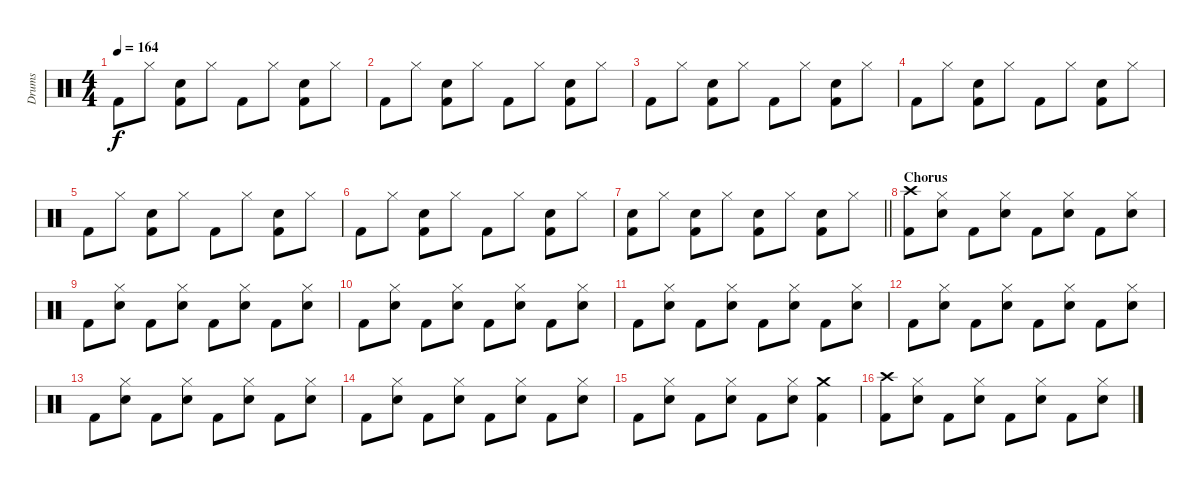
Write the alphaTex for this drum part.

\track ("Drums" "Drums") {instrument percussion}
\staff {score}
\articulation defaults
\ts (4 4)
\tempo 164
\clef neutral
\ks c "Kick (hit) 2".8{dy f} "Hi-Hat (closed)".8
("Electric Snare (hit)" "Kick (hit) 2").8 "Hi-Hat (closed)".8 "Kick (hit) 2".8 "Hi-Hat (closed)".8 ("Electric Snare (hit)" "Kick (hit) 2").8 "Hi-Hat (closed)".8 |
"Kick (hit) 2".8 "Hi-Hat (closed)".8 ("Electric Snare (hit)" "Kick (hit) 2").8 "Hi-Hat (closed)".8 "Kick (hit) 2".8 "Hi-Hat (closed)".8 ("Electric Snare (hit)" "Kick (hit) 2").8 "Hi-Hat (closed)".8 |
"Kick (hit) 2".8 "Hi-Hat (closed)".8 ("Electric Snare (hit)" "Kick (hit) 2").8 "Hi-Hat (closed)".8 "Kick (hit) 2".8 "Hi-Hat (closed)".8 ("Electric Snare (hit)" "Kick (hit) 2").8 "Hi-Hat (closed)".8 |
"Kick (hit) 2".8 "Hi-Hat (closed)".8 ("Electric Snare (hit)" "Kick (hit) 2").8 "Hi-Hat (closed)".8 "Kick (hit) 2".8 "Hi-Hat (closed)".8 ("Electric Snare (hit)" "Kick (hit) 2").8 "Hi-Hat (closed)".8 |
"Kick (hit) 2".8 "Hi-Hat (closed)".8 ("Electric Snare (hit)" "Kick (hit) 2").8 "Hi-Hat (closed)".8 "Kick (hit) 2".8 "Hi-Hat (closed)".8 ("Electric Snare (hit)" "Kick (hit) 2").8 "Hi-Hat (closed)".8 |
"Kick (hit) 2".8 "Hi-Hat (closed)".8 ("Electric Snare (hit)" "Kick (hit) 2").8 "Hi-Hat (closed)".8 "Kick (hit) 2".8 "Hi-Hat (closed)".8 ("Electric Snare (hit)" "Kick (hit) 2").8 "Hi-Hat (closed)".8 |
\barLineRight lightlight
("Electric Snare (hit)" "Kick (hit) 2").8 "Hi-Hat (closed)".8 ("Electric Snare (hit)" "Kick (hit) 2").8 "Hi-Hat (closed)".8 ("Electric Snare (hit)" "Kick (hit) 2").8 "Hi-Hat (closed)".8 ("Electric Snare (hit)" "Kick (hit) 2").8 "Hi-Hat (closed)".8 |
\section ("" "Chorus")
("Crash high (hit)" "Kick (hit) 2").8 ("Hi-Hat (closed)" "Electric Snare (hit)").8 "Kick (hit) 2".8 ("Hi-Hat (closed)" "Electric Snare (hit)").8 "Kick (hit) 2".8 ("Hi-Hat (closed)" "Electric Snare (hit)").8 "Kick (hit) 2".8 ("Hi-Hat (closed)" "Electric Snare (hit)").8 |
"Kick (hit) 2".8 ("Hi-Hat (closed)" "Electric Snare (hit)").8 "Kick (hit) 2".8 ("Hi-Hat (closed)" "Electric Snare (hit)").8 "Kick (hit) 2".8 ("Hi-Hat (closed)" "Electric Snare (hit)").8 "Kick (hit) 2".8 ("Hi-Hat (closed)" "Electric Snare (hit)").8 |
"Kick (hit) 2".8 ("Hi-Hat (closed)" "Electric Snare (hit)").8 "Kick (hit) 2".8 ("Hi-Hat (closed)" "Electric Snare (hit)").8 "Kick (hit) 2".8 ("Hi-Hat (closed)" "Electric Snare (hit)").8 "Kick (hit) 2".8 ("Hi-Hat (closed)" "Electric Snare (hit)").8 |
"Kick (hit) 2".8 ("Hi-Hat (closed)" "Electric Snare (hit)").8 "Kick (hit) 2".8 ("Hi-Hat (closed)" "Electric Snare (hit)").8 "Kick (hit) 2".8 ("Hi-Hat (closed)" "Electric Snare (hit)").8 "Kick (hit) 2".8 ("Hi-Hat (closed)" "Electric Snare (hit)").8 |
"Kick (hit) 2".8 ("Hi-Hat (closed)" "Electric Snare (hit)").8 "Kick (hit) 2".8 ("Hi-Hat (closed)" "Electric Snare (hit)").8 "Kick (hit) 2".8 ("Hi-Hat (closed)" "Electric Snare (hit)").8 "Kick (hit) 2".8 ("Hi-Hat (closed)" "Electric Snare (hit)").8 |
"Kick (hit) 2".8 ("Hi-Hat (closed)" "Electric Snare (hit)").8 "Kick (hit) 2".8 ("Hi-Hat (closed)" "Electric Snare (hit)").8 "Kick (hit) 2".8 ("Hi-Hat (closed)" "Electric Snare (hit)").8 "Kick (hit) 2".8 ("Hi-Hat (closed)" "Electric Snare (hit)").8 |
"Kick (hit) 2".8 ("Hi-Hat (closed)" "Electric Snare (hit)").8 "Kick (hit) 2".8 ("Hi-Hat (closed)" "Electric Snare (hit)").8 "Kick (hit) 2".8 ("Hi-Hat (closed)" "Electric Snare (hit)").8 "Kick (hit) 2".8 ("Hi-Hat (closed)" "Electric Snare (hit)").8 |
"Kick (hit) 2".8 ("Hi-Hat (closed)" "Electric Snare (hit)").8 "Kick (hit) 2".8 ("Hi-Hat (closed)" "Electric Snare (hit)").8 "Kick (hit) 2".8 ("Hi-Hat (closed)" "Electric Snare (hit)").8 ("Crash medium (hit)" "Kick (hit) 2").4 |
("Crash high (hit)" "Kick (hit) 2").8 ("Hi-Hat (closed)" "Electric Snare (hit)").8 "Kick (hit) 2".8 ("Hi-Hat (closed)" "Electric Snare (hit)").8 "Kick (hit) 2".8 ("Hi-Hat (closed)" "Electric Snare (hit)").8 "Kick (hit) 2".8 ("Hi-Hat (closed)" "Electric Snare (hit)").8
